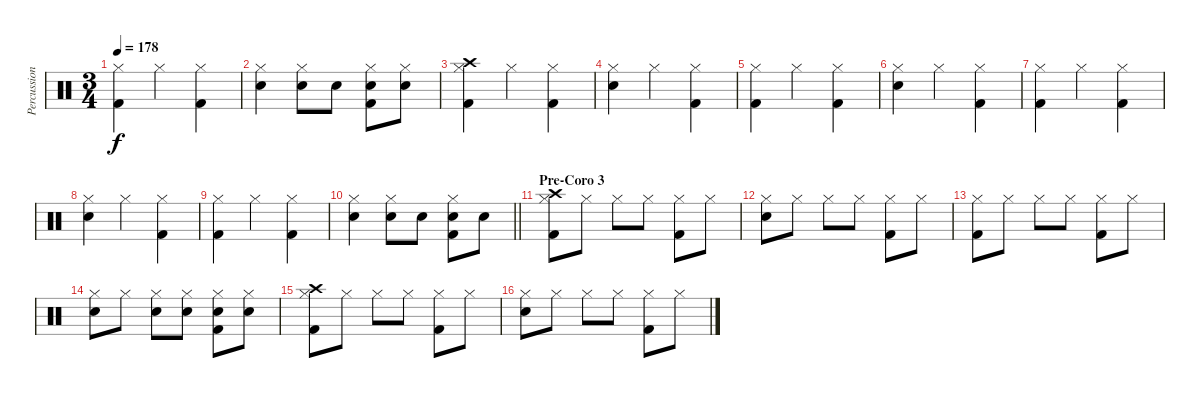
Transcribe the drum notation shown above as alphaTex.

\track ("Percussion" "Percussion") {instrument percussion}
\staff {score}
\articulation defaults
\ts (3 4)
\tempo 178
\clef neutral
\ks c
("Hi-Hat (closed)" "Kick (hit) 2").4{dy f} "Hi-Hat (closed)".4 ("Hi-Hat (closed)" "Kick (hit) 2").4 |
("Hi-Hat (closed)" "Snare (hit) 2").4 ("Hi-Hat (closed)" "Snare (hit) 2").8 "Snare (hit) 2".8 ("Hi-Hat (closed)" "Snare (hit) 2" "Kick (hit) 2").8 ("Hi-Hat (closed)" "Snare (hit) 2").8 |
("Hi-Hat (closed)" "Crash high (hit)" "Kick (hit) 2").4 "Hi-Hat (closed)".4 ("Hi-Hat (closed)" "Kick (hit) 2").4 |
("Hi-Hat (closed)" "Snare (hit) 2").4 "Hi-Hat (closed)".4 ("Hi-Hat (closed)" "Kick (hit) 2").4 |
("Hi-Hat (closed)" "Kick (hit) 2").4 "Hi-Hat (closed)".4 ("Hi-Hat (closed)" "Kick (hit) 2").4 |
("Hi-Hat (closed)" "Snare (hit) 2").4 "Hi-Hat (closed)".4 ("Hi-Hat (closed)" "Kick (hit) 2").4 |
("Hi-Hat (closed)" "Kick (hit) 2").4 "Hi-Hat (closed)".4 ("Hi-Hat (closed)" "Kick (hit) 2").4 |
("Hi-Hat (closed)" "Snare (hit) 2").4 "Hi-Hat (closed)".4 ("Hi-Hat (closed)" "Kick (hit) 2").4 |
("Hi-Hat (closed)" "Kick (hit) 2").4 "Hi-Hat (closed)".4 ("Hi-Hat (closed)" "Kick (hit) 2").4 |
\barLineRight lightlight
("Hi-Hat (closed)" "Snare (hit) 2").4 ("Hi-Hat (closed)" "Snare (hit) 2").8 "Snare (hit) 2".8 ("Hi-Hat (closed)" "Snare (hit) 2" "Kick (hit) 2").8 "Snare (hit) 2".8 |
\section ("" "Pre-Coro 3")
("Hi-Hat (closed)" "Crash high (hit)" "Kick (hit) 2").8 "Hi-Hat (closed)".8 "Hi-Hat (closed)".8 "Hi-Hat (closed)".8 ("Hi-Hat (closed)" "Kick (hit) 2").8 "Hi-Hat (closed)".8 |
("Hi-Hat (closed)" "Snare (hit) 2").8 "Hi-Hat (closed)".8 "Hi-Hat (closed)".8 "Hi-Hat (closed)".8 ("Hi-Hat (closed)" "Kick (hit) 2").8 "Hi-Hat (closed)".8 |
("Hi-Hat (closed)" "Kick (hit) 2").8 "Hi-Hat (closed)".8 "Hi-Hat (closed)".8 "Hi-Hat (closed)".8 ("Hi-Hat (closed)" "Kick (hit) 2").8 "Hi-Hat (closed)".8 |
("Hi-Hat (closed)" "Snare (hit) 2").8 "Hi-Hat (closed)".8 ("Hi-Hat (closed)" "Snare (hit) 2").8 ("Hi-Hat (closed)" "Snare (hit) 2").8 ("Hi-Hat (closed)" "Snare (hit) 2" "Kick (hit) 2").8 ("Hi-Hat (closed)" "Snare (hit) 2").8 |
("Hi-Hat (closed)" "Crash high (hit)" "Kick (hit) 2").8 "Hi-Hat (closed)".8 "Hi-Hat (closed)".8 "Hi-Hat (closed)".8 ("Hi-Hat (closed)" "Kick (hit) 2").8 "Hi-Hat (closed)".8 |
("Hi-Hat (closed)" "Snare (hit) 2").8 "Hi-Hat (closed)".8 "Hi-Hat (closed)".8 "Hi-Hat (closed)".8 ("Hi-Hat (closed)" "Kick (hit) 2").8 "Hi-Hat (closed)".8
